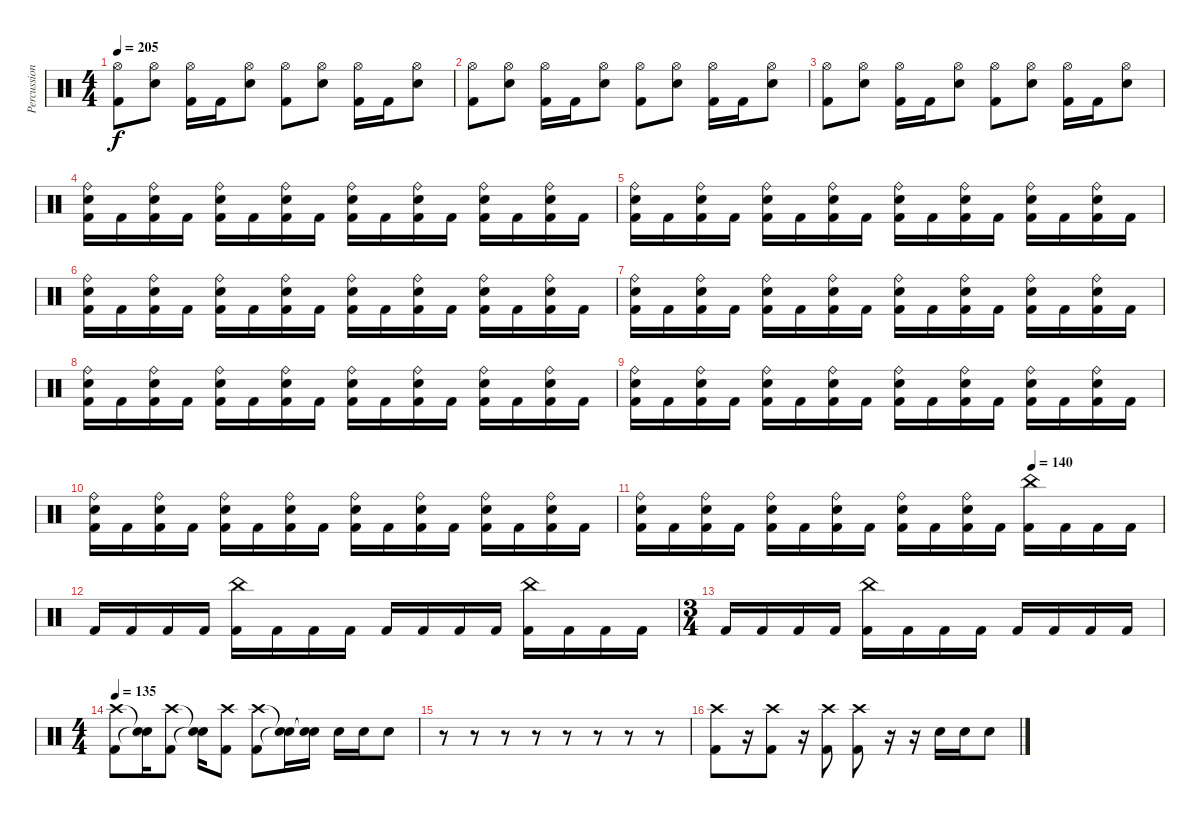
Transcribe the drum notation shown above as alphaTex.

\track ("Percussion" "Percussion") {instrument percussion}
\staff {score}
\articulation defaults
\ts (4 4)
\tempo 205
\clef neutral
\ks c
("Hi-Hat (open)" "Kick (hit) 2").8{dy f} ("Hi-Hat (open)" "Electric Snare (hit)").8 ("Hi-Hat (open)" "Kick (hit) 2").16 "Kick (hit) 2".16 ("Hi-Hat (open)" "Electric Snare (hit)").8 ("Hi-Hat (open)" "Kick (hit) 2").8 ("Hi-Hat (open)" "Electric Snare (hit)").8 ("Hi-Hat (open)" "Kick (hit) 2").16 "Kick (hit) 2".16 ("Hi-Hat (open)" "Electric Snare (hit)").8 |
("Hi-Hat (open)" "Kick (hit) 2").8 ("Hi-Hat (open)" "Electric Snare (hit)").8 ("Hi-Hat (open)" "Kick (hit) 2").16 "Kick (hit) 2".16 ("Hi-Hat (open)" "Electric Snare (hit)").8 ("Hi-Hat (open)" "Kick (hit) 2").8 ("Hi-Hat (open)" "Electric Snare (hit)").8 ("Hi-Hat (open)" "Kick (hit) 2").16 "Kick (hit) 2".16 ("Hi-Hat (open)" "Electric Snare (hit)").8 |
("Hi-Hat (open)" "Kick (hit) 2").8 ("Hi-Hat (open)" "Electric Snare (hit)").8 ("Hi-Hat (open)" "Kick (hit) 2").16 "Kick (hit) 2".16 ("Hi-Hat (open)" "Electric Snare (hit)").8 ("Hi-Hat (open)" "Kick (hit) 2").8 ("Hi-Hat (open)" "Electric Snare (hit)").8 ("Hi-Hat (open)" "Kick (hit) 2").16 "Kick (hit) 2".16 ("Hi-Hat (open)" "Electric Snare (hit)").8 |
("Ride (bell)" "Electric Snare (hit)" "Kick (hit) 2").16 "Kick (hit) 2".16 ("Ride (bell)" "Electric Snare (hit)" "Kick (hit) 2").16 "Kick (hit) 2".16 ("Ride (bell)" "Electric Snare (hit)" "Kick (hit) 2").16 "Kick (hit) 2".16 ("Ride (bell)" "Electric Snare (hit)" "Kick (hit) 2").16 "Kick (hit) 2".16 ("Ride (bell)" "Electric Snare (hit)" "Kick (hit) 2").16 "Kick (hit) 2".16 ("Ride (bell)" "Electric Snare (hit)" "Kick (hit) 2").16 "Kick (hit) 2".16 ("Ride (bell)" "Electric Snare (hit)" "Kick (hit) 2").16 "Kick (hit) 2".16 ("Ride (bell)" "Electric Snare (hit)" "Kick (hit) 2").16 "Kick (hit) 2".16 |
("Ride (bell)" "Electric Snare (hit)" "Kick (hit) 2").16 "Kick (hit) 2".16 ("Ride (bell)" "Electric Snare (hit)" "Kick (hit) 2").16 "Kick (hit) 2".16 ("Ride (bell)" "Electric Snare (hit)" "Kick (hit) 2").16 "Kick (hit) 2".16 ("Ride (bell)" "Electric Snare (hit)" "Kick (hit) 2").16 "Kick (hit) 2".16 ("Ride (bell)" "Electric Snare (hit)" "Kick (hit) 2").16 "Kick (hit) 2".16 ("Ride (bell)" "Electric Snare (hit)" "Kick (hit) 2").16 "Kick (hit) 2".16 ("Ride (bell)" "Electric Snare (hit)" "Kick (hit) 2").16 "Kick (hit) 2".16 ("Ride (bell)" "Electric Snare (hit)" "Kick (hit) 2").16 "Kick (hit) 2".16 |
("Ride (bell)" "Electric Snare (hit)" "Kick (hit) 2").16 "Kick (hit) 2".16 ("Ride (bell)" "Electric Snare (hit)" "Kick (hit) 2").16 "Kick (hit) 2".16 ("Ride (bell)" "Electric Snare (hit)" "Kick (hit) 2").16 "Kick (hit) 2".16 ("Ride (bell)" "Electric Snare (hit)" "Kick (hit) 2").16 "Kick (hit) 2".16 ("Ride (bell)" "Electric Snare (hit)" "Kick (hit) 2").16 "Kick (hit) 2".16 ("Ride (bell)" "Electric Snare (hit)" "Kick (hit) 2").16 "Kick (hit) 2".16 ("Ride (bell)" "Electric Snare (hit)" "Kick (hit) 2").16 "Kick (hit) 2".16 ("Ride (bell)" "Electric Snare (hit)" "Kick (hit) 2").16 "Kick (hit) 2".16 |
("Ride (bell)" "Electric Snare (hit)" "Kick (hit) 2").16 "Kick (hit) 2".16 ("Ride (bell)" "Electric Snare (hit)" "Kick (hit) 2").16 "Kick (hit) 2".16 ("Ride (bell)" "Electric Snare (hit)" "Kick (hit) 2").16 "Kick (hit) 2".16 ("Ride (bell)" "Electric Snare (hit)" "Kick (hit) 2").16 "Kick (hit) 2".16 ("Ride (bell)" "Electric Snare (hit)" "Kick (hit) 2").16 "Kick (hit) 2".16 ("Ride (bell)" "Electric Snare (hit)" "Kick (hit) 2").16 "Kick (hit) 2".16 ("Ride (bell)" "Electric Snare (hit)" "Kick (hit) 2").16 "Kick (hit) 2".16 ("Ride (bell)" "Electric Snare (hit)" "Kick (hit) 2").16 "Kick (hit) 2".16 |
("Ride (bell)" "Electric Snare (hit)" "Kick (hit) 2").16 "Kick (hit) 2".16 ("Ride (bell)" "Electric Snare (hit)" "Kick (hit) 2").16 "Kick (hit) 2".16 ("Ride (bell)" "Electric Snare (hit)" "Kick (hit) 2").16 "Kick (hit) 2".16 ("Ride (bell)" "Electric Snare (hit)" "Kick (hit) 2").16 "Kick (hit) 2".16 ("Ride (bell)" "Electric Snare (hit)" "Kick (hit) 2").16 "Kick (hit) 2".16 ("Ride (bell)" "Electric Snare (hit)" "Kick (hit) 2").16 "Kick (hit) 2".16 ("Ride (bell)" "Electric Snare (hit)" "Kick (hit) 2").16 "Kick (hit) 2".16 ("Ride (bell)" "Electric Snare (hit)" "Kick (hit) 2").16 "Kick (hit) 2".16 |
("Ride (bell)" "Electric Snare (hit)" "Kick (hit) 2").16 "Kick (hit) 2".16 ("Ride (bell)" "Electric Snare (hit)" "Kick (hit) 2").16 "Kick (hit) 2".16 ("Ride (bell)" "Electric Snare (hit)" "Kick (hit) 2").16 "Kick (hit) 2".16 ("Ride (bell)" "Electric Snare (hit)" "Kick (hit) 2").16 "Kick (hit) 2".16 ("Ride (bell)" "Electric Snare (hit)" "Kick (hit) 2").16 "Kick (hit) 2".16 ("Ride (bell)" "Electric Snare (hit)" "Kick (hit) 2").16 "Kick (hit) 2".16 ("Ride (bell)" "Electric Snare (hit)" "Kick (hit) 2").16 "Kick (hit) 2".16 ("Ride (bell)" "Electric Snare (hit)" "Kick (hit) 2").16 "Kick (hit) 2".16 |
("Ride (bell)" "Electric Snare (hit)" "Kick (hit) 2").16 "Kick (hit) 2".16 ("Ride (bell)" "Electric Snare (hit)" "Kick (hit) 2").16 "Kick (hit) 2".16 ("Ride (bell)" "Electric Snare (hit)" "Kick (hit) 2").16 "Kick (hit) 2".16 ("Ride (bell)" "Electric Snare (hit)" "Kick (hit) 2").16 "Kick (hit) 2".16 ("Ride (bell)" "Electric Snare (hit)" "Kick (hit) 2").16 "Kick (hit) 2".16 ("Ride (bell)" "Electric Snare (hit)" "Kick (hit) 2").16 "Kick (hit) 2".16 ("Ride (bell)" "Electric Snare (hit)" "Kick (hit) 2").16 "Kick (hit) 2".16 ("Ride (bell)" "Electric Snare (hit)" "Kick (hit) 2").16 "Kick (hit) 2".16 |
\tempo (140 0.75)
("Ride (bell)" "Electric Snare (hit)" "Kick (hit) 2").16 "Kick (hit) 2".16 ("Ride (bell)" "Electric Snare (hit)" "Kick (hit) 2").16 "Kick (hit) 2".16 ("Ride (bell)" "Electric Snare (hit)" "Kick (hit) 2").16 "Kick (hit) 2".16 ("Ride (bell)" "Electric Snare (hit)" "Kick (hit) 2").16 "Kick (hit) 2".16 ("Ride (bell)" "Electric Snare (hit)" "Kick (hit) 2").16 "Kick (hit) 2".16 ("Ride (bell)" "Electric Snare (hit)" "Kick (hit) 2").16 "Kick (hit) 2".16 ("China (hit)" "Kick (hit) 2").16 "Kick (hit) 2".16 "Kick (hit) 2".16 "Kick (hit) 2".16 |
"Kick (hit) 2".16 "Kick (hit) 2".16 "Kick (hit) 2".16 "Kick (hit) 2".16 ("China (hit)" "Kick (hit) 2").16 "Kick (hit) 2".16 "Kick (hit) 2".16 "Kick (hit) 2".16 "Kick (hit) 2".16 "Kick (hit) 2".16 "Kick (hit) 2".16 "Kick (hit) 2".16 ("China (hit)" "Kick (hit) 2").16 "Kick (hit) 2".16 "Kick (hit) 2".16 "Kick (hit) 2".16 |
\ts (3 4)
"Kick (hit) 2".16 "Kick (hit) 2".16 "Kick (hit) 2".16 "Kick (hit) 2".16 ("China (hit)" "Kick (hit) 2").16 "Kick (hit) 2".16 "Kick (hit) 2".16 "Kick (hit) 2".16 "Kick (hit) 2".16 "Kick (hit) 2".16 "Kick (hit) 2".16 "Kick (hit) 2".16 |
\ts (4 4)
\tempo 135
("Crash high (hit)" "Kick (hit) 2").8 ("Snare (hit)"{t} "Snare (hit)"{t}).16 ("Crash high (hit)" "Kick (hit) 2").8 ("Snare (hit)"{t} "Snare (hit)"{t}).16 ("Crash high (hit)" "Kick (hit) 2").8 ("Crash high (hit)" "Kick (hit) 2").8 ("Snare (hit)"{t} "Snare (hit)"{t}).16 ("Snare (hit)"{t} "Snare (hit)"{t}).16 "Electric Snare (hit)".16 "Electric Snare (hit)".16 "Electric Snare (hit)".8 |
r.8 r.8 r.8 r.8 r.8 r.8 r.8 r.8 |
("Crash high (hit)" "Kick (hit) 2").8 r.16 ("Crash high (hit)" "Kick (hit) 2").8 r.16 ("Crash high (hit)" "Kick (hit) 2").8 ("Crash high (hit)" "Kick (hit) 2").8 r.16 r.16 "Electric Snare (hit)".16 "Electric Snare (hit)".16 "Electric Snare (hit)".8
